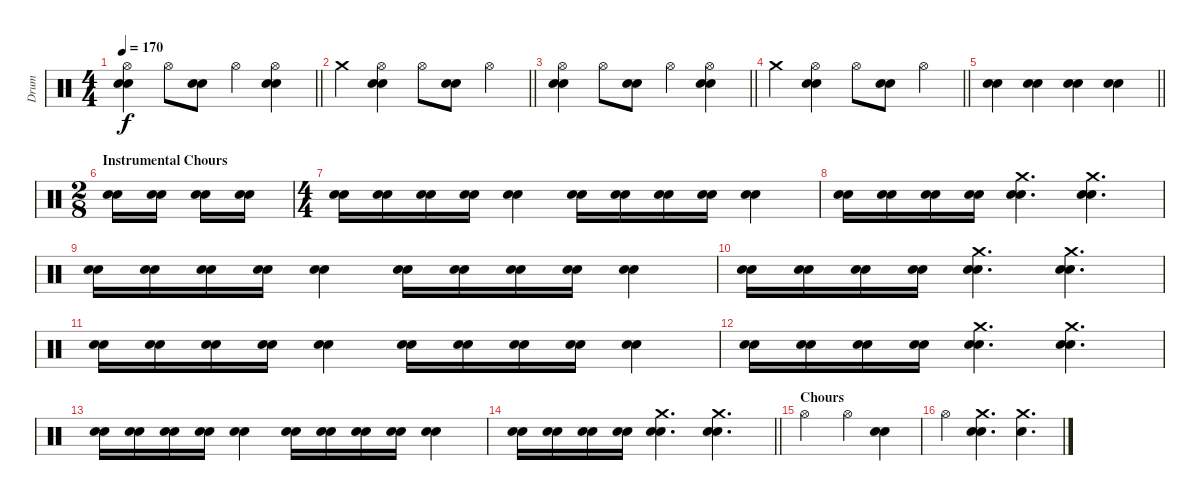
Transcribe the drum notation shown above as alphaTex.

\track ("Drum" "Drum") {instrument percussion}
\staff
\articulation defaults
\ts (4 4)
\tempo 170
\clef neutral
\barLineRight lightlight
\ks c
("Hi-Hat (open)" "Electric Snare (hit)" "Snare (hit) 2").4{dy f} "Hi-Hat (open)".8 ("Electric Snare (hit)" "Snare (hit) 2").8 "Hi-Hat (open)".4 ("Hi-Hat (open)" "Electric Snare (hit)" "Snare (hit) 2").4 |
\barLineRight lightlight "Crash medium (hit)".4
("Hi-Hat (open)" "Electric Snare (hit)" "Snare (hit) 2").4 "Hi-Hat (open)".8 ("Electric Snare (hit)" "Snare (hit) 2").8 "Hi-Hat (open)".4 |
\barLineRight lightlight
("Hi-Hat (open)" "Electric Snare (hit)" "Snare (hit) 2").4 "Hi-Hat (open)".8 ("Electric Snare (hit)" "Snare (hit) 2").8 "Hi-Hat (open)".4 ("Hi-Hat (open)" "Electric Snare (hit)" "Snare (hit) 2").4 |
\barLineRight lightlight "Crash medium (hit)".4
("Hi-Hat (open)" "Electric Snare (hit)" "Snare (hit) 2").4 "Hi-Hat (open)".8 ("Electric Snare (hit)" "Snare (hit) 2").8 "Hi-Hat (open)".4 |
\barLineRight lightlight
("Electric Snare (hit)" "Snare (hit) 2").4 ("Electric Snare (hit)" "Snare (hit) 2").4 ("Electric Snare (hit)" "Snare (hit) 2").4 ("Electric Snare (hit)" "Snare (hit) 2").4 |
\ts (2 8)
\section ("" "Instrumental Chours")
("Electric Snare (hit)" "Snare (hit) 2").16 ("Electric Snare (hit)" "Snare (hit) 2").16 ("Electric Snare (hit)" "Snare (hit) 2").16 ("Electric Snare (hit)" "Snare (hit) 2").16 |
\ts (4 4)
("Electric Snare (hit)" "Snare (hit) 2").16 ("Electric Snare (hit)" "Snare (hit) 2").16 ("Electric Snare (hit)" "Snare (hit) 2").16 ("Electric Snare (hit)" "Snare (hit) 2").16 ("Electric Snare (hit)" "Snare (hit) 2").4 ("Electric Snare (hit)" "Snare (hit) 2").16 ("Electric Snare (hit)" "Snare (hit) 2").16 ("Electric Snare (hit)" "Snare (hit) 2").16 ("Electric Snare (hit)" "Snare (hit) 2").16 ("Electric Snare (hit)" "Snare (hit) 2").4 |
("Electric Snare (hit)" "Snare (hit) 2").16 ("Electric Snare (hit)" "Snare (hit) 2").16 ("Electric Snare (hit)" "Snare (hit) 2").16 ("Electric Snare (hit)" "Snare (hit) 2").16 ("Crash medium (hit)" "Electric Snare (hit)" "Snare (hit) 2").4{d} ("Crash medium (hit)" "Electric Snare (hit)" "Snare (hit) 2").4{d} |
("Electric Snare (hit)" "Snare (hit) 2").16 ("Electric Snare (hit)" "Snare (hit) 2").16 ("Electric Snare (hit)" "Snare (hit) 2").16 ("Electric Snare (hit)" "Snare (hit) 2").16 ("Electric Snare (hit)" "Snare (hit) 2").4 ("Electric Snare (hit)" "Snare (hit) 2").16 ("Electric Snare (hit)" "Snare (hit) 2").16 ("Electric Snare (hit)" "Snare (hit) 2").16 ("Electric Snare (hit)" "Snare (hit) 2").16 ("Electric Snare (hit)" "Snare (hit) 2").4 |
("Electric Snare (hit)" "Snare (hit) 2").16 ("Electric Snare (hit)" "Snare (hit) 2").16 ("Electric Snare (hit)" "Snare (hit) 2").16 ("Electric Snare (hit)" "Snare (hit) 2").16 ("Crash medium (hit)" "Electric Snare (hit)" "Snare (hit) 2").4{d} ("Crash medium (hit)" "Electric Snare (hit)" "Snare (hit) 2").4{d} |
("Electric Snare (hit)" "Snare (hit) 2").16 ("Electric Snare (hit)" "Snare (hit) 2").16 ("Electric Snare (hit)" "Snare (hit) 2").16 ("Electric Snare (hit)" "Snare (hit) 2").16 ("Electric Snare (hit)" "Snare (hit) 2").4 ("Electric Snare (hit)" "Snare (hit) 2").16 ("Electric Snare (hit)" "Snare (hit) 2").16 ("Electric Snare (hit)" "Snare (hit) 2").16 ("Electric Snare (hit)" "Snare (hit) 2").16 ("Electric Snare (hit)" "Snare (hit) 2").4 |
("Electric Snare (hit)" "Snare (hit) 2").16 ("Electric Snare (hit)" "Snare (hit) 2").16 ("Electric Snare (hit)" "Snare (hit) 2").16 ("Electric Snare (hit)" "Snare (hit) 2").16 ("Crash medium (hit)" "Electric Snare (hit)" "Snare (hit) 2").4{d} ("Crash medium (hit)" "Electric Snare (hit)" "Snare (hit) 2").4{d} |
("Electric Snare (hit)" "Snare (hit) 2").16 ("Electric Snare (hit)" "Snare (hit) 2").16 ("Electric Snare (hit)" "Snare (hit) 2").16 ("Electric Snare (hit)" "Snare (hit) 2").16 ("Electric Snare (hit)" "Snare (hit) 2").4 ("Electric Snare (hit)" "Snare (hit) 2").16 ("Electric Snare (hit)" "Snare (hit) 2").16 ("Electric Snare (hit)" "Snare (hit) 2").16 ("Electric Snare (hit)" "Snare (hit) 2").16 ("Electric Snare (hit)" "Snare (hit) 2").4 |
\barLineRight lightlight
("Electric Snare (hit)" "Snare (hit) 2").16 ("Electric Snare (hit)" "Snare (hit) 2").16 ("Electric Snare (hit)" "Snare (hit) 2").16 ("Electric Snare (hit)" "Snare (hit) 2").16 ("Crash medium (hit)" "Electric Snare (hit)" "Snare (hit) 2").4{d} ("Crash medium (hit)" "Electric Snare (hit)" "Snare (hit) 2").4{d} |
\section ("" "Chours")
"Hi-Hat (open)".2 "Hi-Hat (open)".4 ("Electric Snare (hit)" "Snare (hit) 2").4 |
"Hi-Hat (open)".4 ("Crash medium (hit)" "Electric Snare (hit)" "Snare (hit) 2").4{d} ("Crash medium (hit)" "Electric Snare (hit)").4{d}
